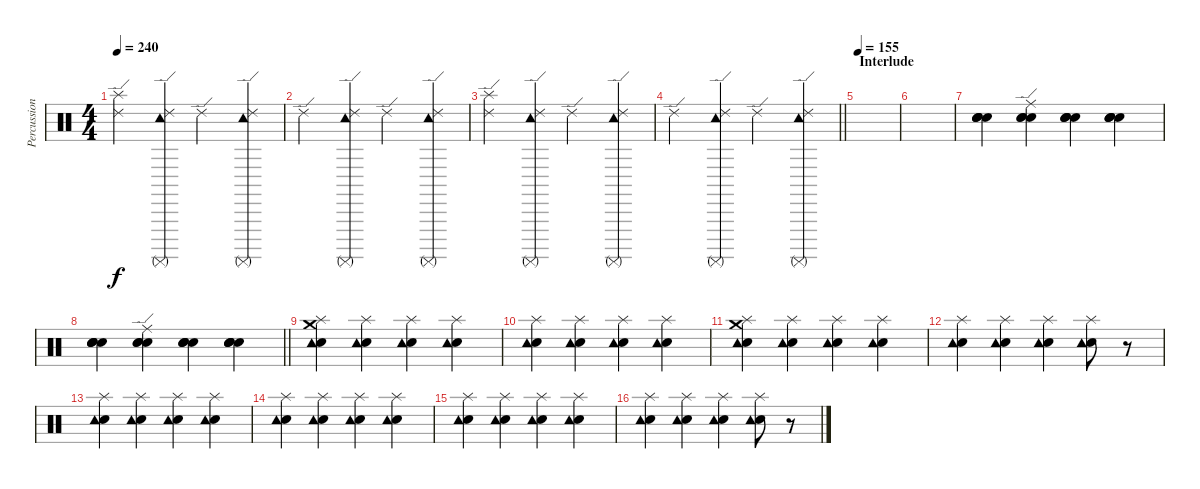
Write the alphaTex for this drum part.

\track ("Percussions" "Percussion") {instrument percussion}
\staff {score}
\articulation defaults
\ts (4 4)
\tempo 240
\clef neutral
\ks c
("Splash (hit)" "Ride (edge) 2").4{dy f} ("Tambourine (hit)" "Ride (edge) 2" "Surdo (mute)").4 "Ride (edge) 2".4 ("Tambourine (hit)" "Ride (edge) 2" "Surdo (mute)").4 |
"Ride (edge) 2".4 ("Tambourine (hit)" "Ride (edge) 2" "Surdo (mute)").4 "Ride (edge) 2".4 ("Tambourine (hit)" "Ride (edge) 2" "Surdo (mute)").4 |
("Splash (hit)" "Ride (edge) 2").4 ("Tambourine (hit)" "Ride (edge) 2" "Surdo (mute)").4 "Ride (edge) 2".4 ("Tambourine (hit)" "Ride (edge) 2" "Surdo (mute)").4 |
\barLineRight lightlight "Ride (edge) 2".4
("Tambourine (hit)" "Ride (edge) 2" "Surdo (mute)").4 "Ride (edge) 2".4 ("Tambourine (hit)" "Ride (edge) 2" "Surdo (mute)").4 |
\section ("" "Interlude")
\tempo 155
|
|
("Hand Clap (hit)" "Hand Clap (hit)" "Hand Clap (hit)" "Hand Clap (hit)").4{bu 120} ("Hand Clap (hit)" "Ride (edge)" "Hand Clap (hit)" "Hand Clap (hit)").4 ("Hand Clap (hit)" "Hand Clap (hit)" "Hand Clap (hit)" "Hand Clap (hit)").4 ("Hand Clap (hit)" "Hand Clap (hit)" "Hand Clap (hit)" "Hand Clap (hit)").4 |
\barLineRight lightlight
("Hand Clap (hit)" "Hand Clap (hit)" "Hand Clap (hit)" "Hand Clap (hit)").4{bu 120} ("Hand Clap (hit)" "Ride (edge)" "Hand Clap (hit)" "Hand Clap (hit)").4 ("Hand Clap (hit)" "Hand Clap (hit)" "Hand Clap (hit)" "Hand Clap (hit)").4 ("Hand Clap (hit)" "Hand Clap (hit)" "Hand Clap (hit)" "Hand Clap (hit)").4 |
\section ("" "")
("Crash medium (hit)" "Hand Clap (hit)" "Splash (hit)" "Tambourine (hit)").4 ("Hand Clap (hit)" "Splash (hit)" "Tambourine (hit)").4 ("Hand Clap (hit)" "Splash (hit)" "Tambourine (hit)").4 ("Hand Clap (hit)" "Splash (hit)" "Tambourine (hit)").4 |
("Hand Clap (hit)" "Splash (hit)" "Tambourine (hit)").4 ("Hand Clap (hit)" "Splash (hit)" "Tambourine (hit)").4 ("Hand Clap (hit)" "Splash (hit)" "Tambourine (hit)").4 ("Hand Clap (hit)" "Splash (hit)" "Tambourine (hit)").4 |
("Crash medium (hit)" "Hand Clap (hit)" "Splash (hit)" "Tambourine (hit)").4 ("Hand Clap (hit)" "Splash (hit)" "Tambourine (hit)").4 ("Hand Clap (hit)" "Splash (hit)" "Tambourine (hit)").4 ("Hand Clap (hit)" "Splash (hit)" "Tambourine (hit)").4 |
("Hand Clap (hit)" "Splash (hit)" "Tambourine (hit)").4 ("Hand Clap (hit)" "Splash (hit)" "Tambourine (hit)").4 ("Hand Clap (hit)" "Splash (hit)" "Tambourine (hit)").4 ("Hand Clap (hit)" "Splash (hit)" "Tambourine (hit)").8 r.8 |
("Hand Clap (hit)" "Splash (hit)" "Tambourine (hit)").4 ("Hand Clap (hit)" "Splash (hit)" "Tambourine (hit)").4 ("Hand Clap (hit)" "Splash (hit)" "Tambourine (hit)").4 ("Hand Clap (hit)" "Splash (hit)" "Tambourine (hit)").4 |
("Hand Clap (hit)" "Splash (hit)" "Tambourine (hit)").4 ("Hand Clap (hit)" "Splash (hit)" "Tambourine (hit)").4 ("Hand Clap (hit)" "Splash (hit)" "Tambourine (hit)").4 ("Hand Clap (hit)" "Splash (hit)" "Tambourine (hit)").4 |
("Hand Clap (hit)" "Splash (hit)" "Tambourine (hit)").4 ("Hand Clap (hit)" "Splash (hit)" "Tambourine (hit)").4 ("Hand Clap (hit)" "Splash (hit)" "Tambourine (hit)").4 ("Hand Clap (hit)" "Splash (hit)" "Tambourine (hit)").4 |
("Hand Clap (hit)" "Splash (hit)" "Tambourine (hit)").4 ("Hand Clap (hit)" "Splash (hit)" "Tambourine (hit)").4 ("Hand Clap (hit)" "Splash (hit)" "Tambourine (hit)").4 ("Hand Clap (hit)" "Splash (hit)" "Tambourine (hit)").8 r.8
